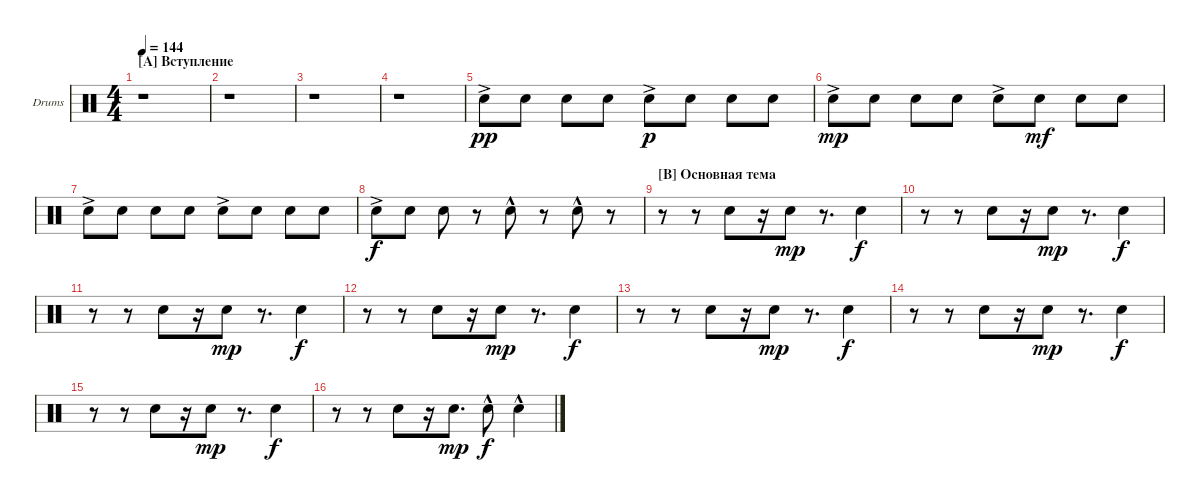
\defaultSystemsLayout 4
\bracketExtendMode groupsimilarinstruments
\firstSystemTrackNameOrientation horizontal
\otherSystemsTrackNameOrientation horizontal
\track ("Snare" "Drums") {instrument percussion}
\staff {score}
\articulation defaults
\ts (4 4)
\section ("A" "Вступление")
\tempo 144
\clef neutral
\scale
0.472222
\ks c
r.1{dy pp} |
\scale
0.263889 r.1 |
\scale
0.263889 r.1 |
\scale
0.331395 r.1 |
\scale
0.337209 "Snare (hit) 2"{ac}.8 "Snare (hit) 2".8 "Snare (hit) 2".8 "Snare (hit) 2".8 "Snare (hit) 2"{ac}.8{dy p} "Snare (hit) 2".8 "Snare (hit) 2".8 "Snare (hit) 2".8 |
\scale
0.331395 "Snare (hit) 2"{ac}.8{dy mp} "Snare (hit) 2".8 "Snare (hit) 2".8 "Snare (hit) 2".8 "Snare (hit) 2"{ac}.8 "Snare (hit) 2".8{dy mf} "Snare (hit) 2".8 "Snare (hit) 2".8 |
"Snare (hit) 2"{ac}.8 "Snare (hit) 2".8 "Snare (hit) 2".8 "Snare (hit) 2".8 "Snare (hit) 2"{ac}.8 "Snare (hit) 2".8 "Snare (hit) 2".8 "Snare (hit) 2".8 |
"Snare (hit) 2"{ac}.8{dy f} "Snare (hit) 2".8 "Snare (hit) 2".8 r.8 "Snare (hit) 2"{hac}.8 r.8 "Snare (hit) 2"{hac}.8 r.8 |
\section ("B" "Основная тема ")
r.8 r.8 "Snare (hit) 2".8 r.16 "Snare (hit) 2".8{dy mp} r.8{d} "Snare (hit) 2".4{dy f} |
r.8 r.8 "Snare (hit) 2".8 r.16 "Snare (hit) 2".8{dy mp} r.8{d} "Snare (hit) 2".4{dy f} |
r.8 r.8 "Snare (hit) 2".8 r.16 "Snare (hit) 2".8{dy mp} r.8{d} "Snare (hit) 2".4{dy f} |
r.8 r.8 "Snare (hit) 2".8 r.16 "Snare (hit) 2".8{dy mp} r.8{d} "Snare (hit) 2".4{dy f} |
r.8 r.8 "Snare (hit) 2".8 r.16 "Snare (hit) 2".8{dy mp} r.8{d} "Snare (hit) 2".4{dy f} |
r.8 r.8 "Snare (hit) 2".8 r.16 "Snare (hit) 2".8{dy mp} r.8{d} "Snare (hit) 2".4{dy f} |
r.8 r.8 "Snare (hit) 2".8 r.16 "Snare (hit) 2".8{dy mp} r.8{d} "Snare (hit) 2".4{dy f} |
r.8 r.8 "Snare (hit) 2".8 r.16 "Snare (hit) 2".8{d dy mp} "Snare (hit) 2"{hac}.8{dy f} "Snare (hit) 2"{hac}.4
